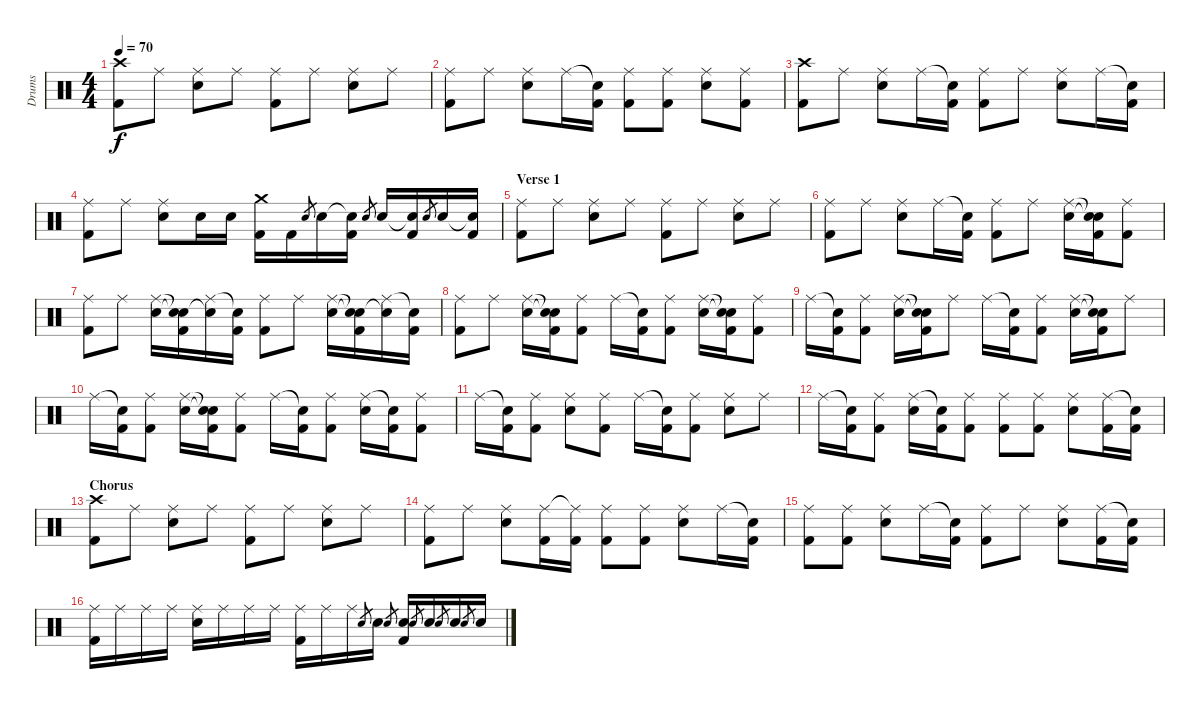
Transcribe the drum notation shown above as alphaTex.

\track ("Drums" "Drums") {instrument percussion}
\staff {score}
\articulation defaults
\ts (4 4)
\tempo 70
\clef neutral
\ks c
("Crash high (hit)" "Kick (hit) 2").8{dy f} "Ride (middle)".8 ("Ride (middle)" "Snare (hit) 2").8 "Ride (middle)".8 ("Ride (middle)" "Kick (hit) 2").8 "Ride (middle)".8 ("Ride (middle)" "Snare (hit) 2").8 "Ride (middle)".8 |
("Ride (middle)" "Kick (hit) 2").8 "Ride (middle)".8 ("Ride (middle)" "Snare (hit) 2").8 "Ride (middle)".16 ("Snare (hit)"{t} "Kick (hit) 2").16 ("Ride (middle)" "Kick (hit) 2").8 ("Ride (middle)" "Kick (hit) 2").8 ("Ride (middle)" "Snare (hit) 2").8 ("Ride (middle)" "Kick (hit) 2").8 |
("Crash high (hit)" "Kick (hit) 2").8 "Ride (middle)".8 ("Ride (middle)" "Snare (hit) 2").8 "Ride (middle)".16 ("Snare (hit)"{t} "Kick (hit) 2").16 ("Ride (middle)" "Kick (hit) 2").8 "Ride (middle)".8 ("Ride (middle)" "Snare (hit) 2").8 "Ride (middle)".16 ("Snare (hit)"{t} "Kick (hit) 2").16 |
("Ride (middle)" "Kick (hit) 2").8 "Ride (middle)".8 ("Ride (middle)" "Snare (hit) 2").8 "Snare (hit) 2".16 "Snare (hit) 2".16 ("Crash medium (hit)" "Kick (hit) 2").16 "Kick (hit) 2".16 "Snare (hit) 2".8{gr} "Snare (hit) 2".16 ("Snare (hit)"{t} "Kick (hit) 2").16 "Snare (hit) 2".8{gr} "Snare (hit) 2".16 ("Snare (hit)"{t} "Kick (hit) 2").16 "Snare (hit) 2".8{gr} "Snare (hit) 2".16 ("Snare (hit)"{t} "Kick (hit) 2").16 |
\section ("" "Verse 1")
("Ride (middle)" "Kick (hit) 2").8 "Ride (middle)".8 ("Ride (middle)" "Snare (hit) 2").8 "Ride (middle)".8 ("Ride (middle)" "Kick (hit) 2").8 "Ride (middle)".8 ("Ride (middle)" "Snare (hit) 2").8 "Ride (middle)".8 |
("Ride (middle)" "Kick (hit) 2").8 "Ride (middle)".8 ("Ride (middle)" "Snare (hit) 2").8 "Ride (middle)".16 ("Snare (hit)"{t} "Kick (hit) 2").16 ("Ride (middle)" "Kick (hit) 2").8 "Ride (middle)".8 ("Ride (middle)" "Snare (hit) 2").16 ("Snare (hit)"{t} "Snare (hit)"{t} "Kick (hit) 2").16 ("Ride (middle)" "Kick (hit) 2").8 |
("Ride (middle)" "Kick (hit) 2").8 "Ride (middle)".8 ("Ride (middle)" "Snare (hit) 2").16 ("Snare (hit)"{t} "Snare (hit)"{t} "Kick (hit) 2").16 ("Ride (middle)" "Snare (hit)"{t}).16 ("Snare (hit)"{t} "Kick (hit) 2").16 ("Ride (middle)" "Kick (hit) 2").8 "Ride (middle)".8 ("Ride (middle)" "Snare (hit) 2").16 ("Snare (hit)"{t} "Snare (hit)"{t} "Kick (hit) 2").16 ("Ride (middle)" "Snare (hit)"{t}).16 ("Snare (hit)"{t} "Kick (hit) 2").16 |
("Ride (middle)" "Kick (hit) 2").8 "Ride (middle)".8 ("Ride (middle)" "Snare (hit) 2").16 ("Snare (hit)"{t} "Snare (hit)"{t} "Kick (hit) 2").16 ("Ride (middle)" "Kick (hit) 2").8 "Ride (middle)".16 ("Snare (hit)"{t} "Kick (hit) 2").16 ("Ride (middle)" "Kick (hit) 2").8 ("Ride (middle)" "Snare (hit) 2").16 ("Snare (hit)"{t} "Snare (hit)"{t} "Kick (hit) 2").16 ("Ride (middle)" "Kick (hit) 2").8 |
"Ride (middle)".16 ("Snare (hit)"{t} "Kick (hit) 2").16 ("Ride (middle)" "Kick (hit) 2").8 ("Ride (middle)" "Snare (hit) 2").16 ("Snare (hit)"{t} "Snare (hit)"{t} "Kick (hit) 2").16 "Ride (middle)".8 "Ride (middle)".16 ("Snare (hit)"{t} "Kick (hit) 2").16 ("Ride (middle)" "Kick (hit) 2").8 ("Ride (middle)" "Snare (hit) 2").16 ("Snare (hit)"{t} "Snare (hit)"{t} "Kick (hit) 2").16 "Ride (middle)".8 |
"Ride (middle)".16 ("Snare (hit)"{t} "Kick (hit) 2").16 ("Ride (middle)" "Kick (hit) 2").8 ("Ride (middle)" "Snare (hit) 2").16 ("Snare (hit)"{t} "Snare (hit)"{t} "Kick (hit) 2").16 ("Ride (middle)" "Kick (hit) 2").8 "Ride (middle)".16 ("Snare (hit)"{t} "Kick (hit) 2").16 ("Ride (middle)" "Kick (hit) 2").8 ("Ride (middle)" "Snare (hit) 2").16 ("Snare (hit)"{t} "Kick (hit) 2").16 ("Ride (middle)" "Kick (hit) 2").8 |
"Ride (middle)".16 ("Snare (hit)"{t} "Kick (hit) 2").16 ("Ride (middle)" "Kick (hit) 2").8 ("Ride (middle)" "Snare (hit) 2").8 ("Ride (middle)" "Kick (hit) 2").8 "Ride (middle)".16 ("Snare (hit)"{t} "Kick (hit) 2").16 ("Ride (middle)" "Kick (hit) 2").8 ("Ride (middle)" "Snare (hit) 2").8 "Ride (middle)".8 |
"Ride (middle)".16 ("Snare (hit)"{t} "Kick (hit) 2").16 ("Ride (middle)" "Kick (hit) 2").8 ("Ride (middle)" "Snare (hit) 2").16 ("Snare (hit)"{t} "Kick (hit) 2").16 ("Ride (middle)" "Kick (hit) 2").8 ("Ride (middle)" "Kick (hit) 2").8 ("Ride (middle)" "Kick (hit) 2").8 ("Ride (middle)" "Snare (hit) 2").8 ("Ride (middle)" "Kick (hit) 2").16 ("Snare (hit)"{t} "Kick (hit) 2").16 |
\section ("" "Chorus")
("Crash high (hit)" "Kick (hit) 2").8 "Ride (middle)".8 ("Ride (middle)" "Snare (hit) 2").8 "Ride (middle)".8 ("Ride (middle)" "Kick (hit) 2").8 "Ride (middle)".8 ("Ride (middle)" "Snare (hit) 2").8 "Ride (middle)".8 |
("Ride (middle)" "Kick (hit) 2").8 "Ride (middle)".8 ("Ride (middle)" "Snare (hit) 2").8 ("Ride (middle)" "Kick (hit) 2").16 ("Ride (middle)"{t} "Kick (hit) 2").16 ("Ride (middle)" "Kick (hit) 2").8 ("Ride (middle)" "Kick (hit) 2").8 ("Ride (middle)" "Snare (hit) 2").8 "Ride (middle)".16 ("Snare (hit)"{t} "Kick (hit) 2").16 |
("Ride (middle)" "Kick (hit) 2").8 ("Ride (middle)" "Kick (hit) 2").8 ("Ride (middle)" "Snare (hit) 2").8 "Ride (middle)".16 ("Snare (hit)"{t} "Kick (hit) 2").16 ("Ride (middle)" "Kick (hit) 2").8 "Ride (middle)".8 ("Ride (middle)" "Snare (hit) 2").8 ("Ride (middle)" "Kick (hit) 2").16 ("Snare (hit)"{t} "Kick (hit) 2").16 |
("Ride (middle)" "Kick (hit) 2").16 "Ride (middle)".16 "Ride (middle)".16 "Ride (middle)".16 ("Ride (middle)" "Snare (hit) 2").16 "Ride (middle)".16 "Ride (middle)".16 "Ride (middle)".16 ("Ride (middle)" "Kick (hit) 2").16 "Ride (middle)".16 "Ride (middle)".16 "Snare (hit) 2".8{gr} "Snare (hit) 2".16 "Snare (hit) 2".8{gr} ("Snare (hit) 2" "Kick (hit) 2").16 "Snare (hit) 2".8{gr} "Snare (hit) 2".16 "Snare (hit) 2".8{gr} "Snare (hit) 2".16 "Snare (hit) 2".8{gr} "Snare (hit) 2".16
